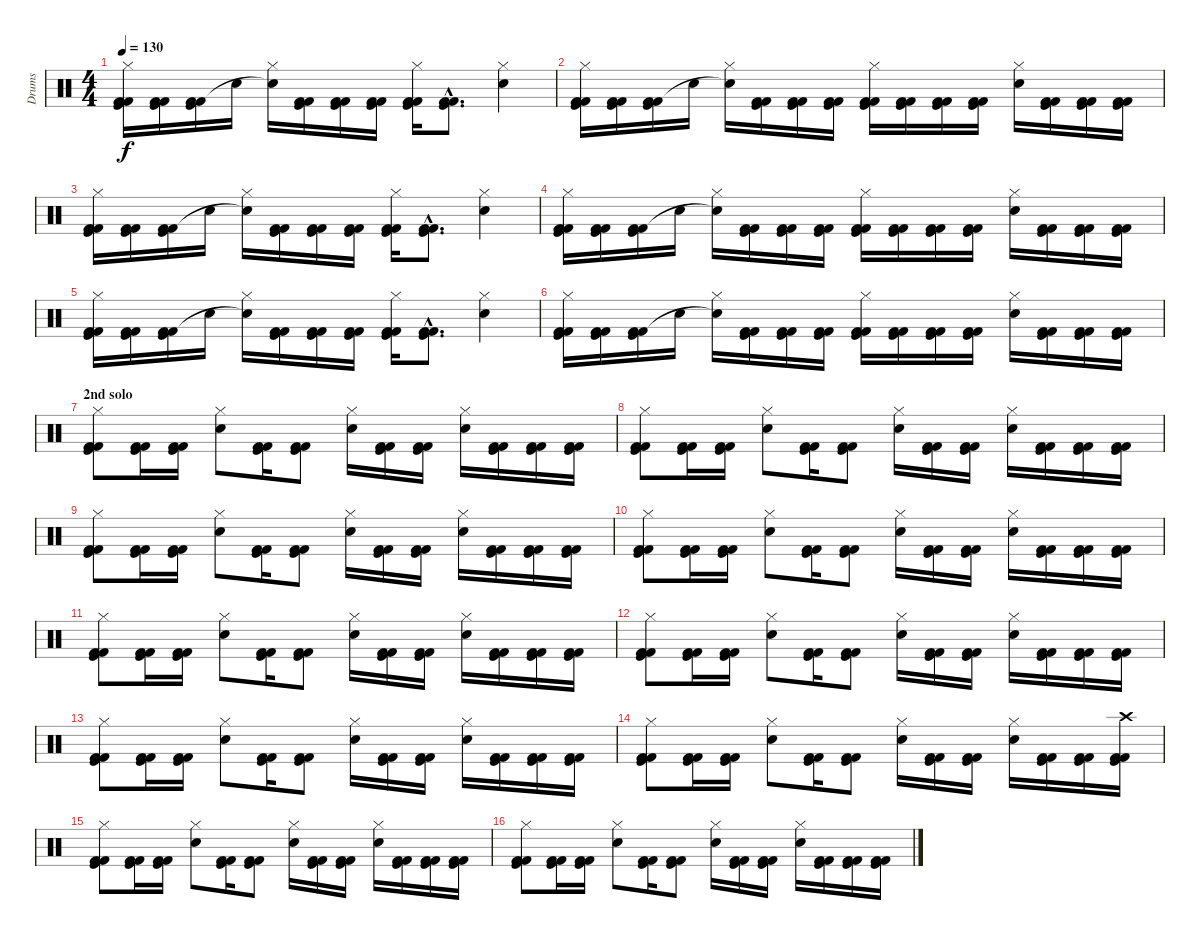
\track ("Drums" "Drums") {instrument percussion}
\staff {score}
\articulation defaults
\ts (4 4)
\tempo 130
\clef neutral
\ks c
("Hi-Hat (closed)" "Kick (hit)" "Kick (hit) 2" "Kick (hit) 2").16{dy f} ("Kick (hit)" "Kick (hit) 2" "Kick (hit) 2").16 ("Kick (hit)" "Kick (hit) 2" "Kick (hit) 2").16 "Electric Snare (hit)".16 ("Hi-Hat (closed)" "Snare (hit)"{t}).16 ("Kick (hit)" "Kick (hit) 2" "Kick (hit) 2").16 ("Kick (hit)" "Kick (hit) 2" "Kick (hit) 2").16 ("Kick (hit)" "Kick (hit) 2" "Kick (hit) 2").16 ("Hi-Hat (closed)" "Kick (hit)" "Kick (hit) 2" "Kick (hit) 2").16 ("Kick (hit)"{hac} "Kick (hit) 2"{hac} "Kick (hit) 2"{hac}).8{d} ("Hi-Hat (closed)" "Electric Snare (hit)").4 |
("Hi-Hat (closed)" "Kick (hit)" "Kick (hit) 2" "Kick (hit) 2").16 ("Kick (hit)" "Kick (hit) 2" "Kick (hit) 2").16 ("Kick (hit)" "Kick (hit) 2" "Kick (hit) 2").16 "Electric Snare (hit)".16 ("Hi-Hat (closed)" "Snare (hit)"{t}).16 ("Kick (hit)" "Kick (hit) 2" "Kick (hit) 2").16 ("Kick (hit)" "Kick (hit) 2" "Kick (hit) 2").16 ("Kick (hit)" "Kick (hit) 2" "Kick (hit) 2").16 ("Hi-Hat (closed)" "Kick (hit)" "Kick (hit) 2" "Kick (hit) 2").16 ("Kick (hit)" "Kick (hit) 2" "Kick (hit) 2").16 ("Kick (hit)" "Kick (hit) 2" "Kick (hit) 2").16 ("Kick (hit)" "Kick (hit) 2" "Kick (hit) 2").16 ("Hi-Hat (closed)" "Electric Snare (hit)").16 ("Kick (hit)" "Kick (hit) 2" "Kick (hit) 2").16 ("Kick (hit)" "Kick (hit) 2" "Kick (hit) 2").16 ("Kick (hit)" "Kick (hit) 2" "Kick (hit) 2").16 |
("Hi-Hat (closed)" "Kick (hit)" "Kick (hit) 2" "Kick (hit) 2").16 ("Kick (hit)" "Kick (hit) 2" "Kick (hit) 2").16 ("Kick (hit)" "Kick (hit) 2" "Kick (hit) 2").16 "Electric Snare (hit)".16 ("Hi-Hat (closed)" "Snare (hit)"{t}).16 ("Kick (hit)" "Kick (hit) 2" "Kick (hit) 2").16 ("Kick (hit)" "Kick (hit) 2" "Kick (hit) 2").16 ("Kick (hit)" "Kick (hit) 2" "Kick (hit) 2").16 ("Hi-Hat (closed)" "Kick (hit)" "Kick (hit) 2" "Kick (hit) 2").16 ("Kick (hit)"{hac} "Kick (hit) 2"{hac} "Kick (hit) 2"{hac}).8{d} ("Hi-Hat (closed)" "Electric Snare (hit)").4 |
("Hi-Hat (closed)" "Kick (hit)" "Kick (hit) 2" "Kick (hit) 2").16 ("Kick (hit)" "Kick (hit) 2" "Kick (hit) 2").16 ("Kick (hit)" "Kick (hit) 2" "Kick (hit) 2").16 "Electric Snare (hit)".16 ("Hi-Hat (closed)" "Snare (hit)"{t}).16 ("Kick (hit)" "Kick (hit) 2" "Kick (hit) 2").16 ("Kick (hit)" "Kick (hit) 2" "Kick (hit) 2").16 ("Kick (hit)" "Kick (hit) 2" "Kick (hit) 2").16 ("Hi-Hat (closed)" "Kick (hit)" "Kick (hit) 2" "Kick (hit) 2").16 ("Kick (hit)" "Kick (hit) 2" "Kick (hit) 2").16 ("Kick (hit)" "Kick (hit) 2" "Kick (hit) 2").16 ("Kick (hit)" "Kick (hit) 2" "Kick (hit) 2").16 ("Hi-Hat (closed)" "Electric Snare (hit)").16 ("Kick (hit)" "Kick (hit) 2" "Kick (hit) 2").16 ("Kick (hit)" "Kick (hit) 2" "Kick (hit) 2").16 ("Kick (hit)" "Kick (hit) 2" "Kick (hit) 2").16 |
("Hi-Hat (closed)" "Kick (hit)" "Kick (hit) 2" "Kick (hit) 2").16 ("Kick (hit)" "Kick (hit) 2" "Kick (hit) 2").16 ("Kick (hit)" "Kick (hit) 2" "Kick (hit) 2").16 "Electric Snare (hit)".16 ("Hi-Hat (closed)" "Snare (hit)"{t}).16 ("Kick (hit)" "Kick (hit) 2" "Kick (hit) 2").16 ("Kick (hit)" "Kick (hit) 2" "Kick (hit) 2").16 ("Kick (hit)" "Kick (hit) 2" "Kick (hit) 2").16 ("Hi-Hat (closed)" "Kick (hit)" "Kick (hit) 2" "Kick (hit) 2").16 ("Kick (hit)"{hac} "Kick (hit) 2"{hac} "Kick (hit) 2"{hac}).8{d} ("Hi-Hat (closed)" "Electric Snare (hit)").4 |
("Hi-Hat (closed)" "Kick (hit)" "Kick (hit) 2" "Kick (hit) 2").16 ("Kick (hit)" "Kick (hit) 2" "Kick (hit) 2").16 ("Kick (hit)" "Kick (hit) 2" "Kick (hit) 2").16 "Electric Snare (hit)".16 ("Hi-Hat (closed)" "Snare (hit)"{t}).16 ("Kick (hit)" "Kick (hit) 2" "Kick (hit) 2").16 ("Kick (hit)" "Kick (hit) 2" "Kick (hit) 2").16 ("Kick (hit)" "Kick (hit) 2" "Kick (hit) 2").16 ("Hi-Hat (closed)" "Kick (hit)" "Kick (hit) 2" "Kick (hit) 2").16 ("Kick (hit)" "Kick (hit) 2" "Kick (hit) 2").16 ("Kick (hit)" "Kick (hit) 2" "Kick (hit) 2").16 ("Kick (hit)" "Kick (hit) 2" "Kick (hit) 2").16 ("Hi-Hat (closed)" "Electric Snare (hit)").16 ("Kick (hit)" "Kick (hit) 2" "Kick (hit) 2").16 ("Kick (hit)" "Kick (hit) 2" "Kick (hit) 2").16 ("Kick (hit)" "Kick (hit) 2" "Kick (hit) 2").16 |
\section ("" "2nd solo")
("Hi-Hat (closed)" "Kick (hit)" "Kick (hit) 2" "Kick (hit) 2").8 ("Kick (hit)" "Kick (hit) 2" "Kick (hit) 2").16 ("Kick (hit)" "Kick (hit) 2" "Kick (hit) 2").16 ("Hi-Hat (closed)" "Electric Snare (hit)").8 ("Kick (hit)" "Kick (hit) 2" "Kick (hit) 2").16 ("Kick (hit)" "Kick (hit) 2" "Kick (hit) 2").8 ("Hi-Hat (closed)" "Electric Snare (hit)").16 ("Kick (hit)" "Kick (hit) 2" "Kick (hit) 2").16 ("Kick (hit)" "Kick (hit) 2" "Kick (hit) 2").16 ("Hi-Hat (closed)" "Electric Snare (hit)").16 ("Kick (hit)" "Kick (hit) 2" "Kick (hit) 2").16 ("Kick (hit)" "Kick (hit) 2" "Kick (hit) 2").16 ("Kick (hit)" "Kick (hit) 2" "Kick (hit) 2").16 |
("Hi-Hat (closed)" "Kick (hit)" "Kick (hit) 2" "Kick (hit) 2").8 ("Kick (hit)" "Kick (hit) 2" "Kick (hit) 2").16 ("Kick (hit)" "Kick (hit) 2" "Kick (hit) 2").16 ("Hi-Hat (closed)" "Electric Snare (hit)").8 ("Kick (hit)" "Kick (hit) 2" "Kick (hit) 2").16 ("Kick (hit)" "Kick (hit) 2" "Kick (hit) 2").8 ("Hi-Hat (closed)" "Electric Snare (hit)").16 ("Kick (hit)" "Kick (hit) 2" "Kick (hit) 2").16 ("Kick (hit)" "Kick (hit) 2" "Kick (hit) 2").16 ("Hi-Hat (closed)" "Electric Snare (hit)").16 ("Kick (hit)" "Kick (hit) 2" "Kick (hit) 2").16 ("Kick (hit)" "Kick (hit) 2" "Kick (hit) 2").16 ("Kick (hit)" "Kick (hit) 2" "Kick (hit) 2").16 |
("Hi-Hat (closed)" "Kick (hit)" "Kick (hit) 2" "Kick (hit) 2").8 ("Kick (hit)" "Kick (hit) 2" "Kick (hit) 2").16 ("Kick (hit)" "Kick (hit) 2" "Kick (hit) 2").16 ("Hi-Hat (closed)" "Electric Snare (hit)").8 ("Kick (hit)" "Kick (hit) 2" "Kick (hit) 2").16 ("Kick (hit)" "Kick (hit) 2" "Kick (hit) 2").8 ("Hi-Hat (closed)" "Electric Snare (hit)").16 ("Kick (hit)" "Kick (hit) 2" "Kick (hit) 2").16 ("Kick (hit)" "Kick (hit) 2" "Kick (hit) 2").16 ("Hi-Hat (closed)" "Electric Snare (hit)").16 ("Kick (hit)" "Kick (hit) 2" "Kick (hit) 2").16 ("Kick (hit)" "Kick (hit) 2" "Kick (hit) 2").16 ("Kick (hit)" "Kick (hit) 2" "Kick (hit) 2").16 |
("Hi-Hat (closed)" "Kick (hit)" "Kick (hit) 2" "Kick (hit) 2").8 ("Kick (hit)" "Kick (hit) 2" "Kick (hit) 2").16 ("Kick (hit)" "Kick (hit) 2" "Kick (hit) 2").16 ("Hi-Hat (closed)" "Electric Snare (hit)").8 ("Kick (hit)" "Kick (hit) 2" "Kick (hit) 2").16 ("Kick (hit)" "Kick (hit) 2" "Kick (hit) 2").8 ("Hi-Hat (closed)" "Electric Snare (hit)").16 ("Kick (hit)" "Kick (hit) 2" "Kick (hit) 2").16 ("Kick (hit)" "Kick (hit) 2" "Kick (hit) 2").16 ("Hi-Hat (closed)" "Electric Snare (hit)").16 ("Kick (hit)" "Kick (hit) 2" "Kick (hit) 2").16 ("Kick (hit)" "Kick (hit) 2" "Kick (hit) 2").16 ("Kick (hit)" "Kick (hit) 2" "Kick (hit) 2").16 |
("Hi-Hat (closed)" "Kick (hit)" "Kick (hit) 2" "Kick (hit) 2").8 ("Kick (hit)" "Kick (hit) 2" "Kick (hit) 2").16 ("Kick (hit)" "Kick (hit) 2" "Kick (hit) 2").16 ("Hi-Hat (closed)" "Electric Snare (hit)").8 ("Kick (hit)" "Kick (hit) 2" "Kick (hit) 2").16 ("Kick (hit)" "Kick (hit) 2" "Kick (hit) 2").8 ("Hi-Hat (closed)" "Electric Snare (hit)").16 ("Kick (hit)" "Kick (hit) 2" "Kick (hit) 2").16 ("Kick (hit)" "Kick (hit) 2" "Kick (hit) 2").16 ("Hi-Hat (closed)" "Electric Snare (hit)").16 ("Kick (hit)" "Kick (hit) 2" "Kick (hit) 2").16 ("Kick (hit)" "Kick (hit) 2" "Kick (hit) 2").16 ("Kick (hit)" "Kick (hit) 2" "Kick (hit) 2").16 |
("Hi-Hat (closed)" "Kick (hit)" "Kick (hit) 2" "Kick (hit) 2").8 ("Kick (hit)" "Kick (hit) 2" "Kick (hit) 2").16 ("Kick (hit)" "Kick (hit) 2" "Kick (hit) 2").16 ("Hi-Hat (closed)" "Electric Snare (hit)").8 ("Kick (hit)" "Kick (hit) 2" "Kick (hit) 2").16 ("Kick (hit)" "Kick (hit) 2" "Kick (hit) 2").8 ("Hi-Hat (closed)" "Electric Snare (hit)").16 ("Kick (hit)" "Kick (hit) 2" "Kick (hit) 2").16 ("Kick (hit)" "Kick (hit) 2" "Kick (hit) 2").16 ("Hi-Hat (closed)" "Electric Snare (hit)").16 ("Kick (hit)" "Kick (hit) 2" "Kick (hit) 2").16 ("Kick (hit)" "Kick (hit) 2" "Kick (hit) 2").16 ("Kick (hit)" "Kick (hit) 2" "Kick (hit) 2").16 |
("Hi-Hat (closed)" "Kick (hit)" "Kick (hit) 2" "Kick (hit) 2").8 ("Kick (hit)" "Kick (hit) 2" "Kick (hit) 2").16 ("Kick (hit)" "Kick (hit) 2" "Kick (hit) 2").16 ("Hi-Hat (closed)" "Electric Snare (hit)").8 ("Kick (hit)" "Kick (hit) 2" "Kick (hit) 2").16 ("Kick (hit)" "Kick (hit) 2" "Kick (hit) 2").8 ("Hi-Hat (closed)" "Electric Snare (hit)").16 ("Kick (hit)" "Kick (hit) 2" "Kick (hit) 2").16 ("Kick (hit)" "Kick (hit) 2" "Kick (hit) 2").16 ("Hi-Hat (closed)" "Electric Snare (hit)").16 ("Kick (hit)" "Kick (hit) 2" "Kick (hit) 2").16 ("Kick (hit)" "Kick (hit) 2" "Kick (hit) 2").16 ("Kick (hit)" "Kick (hit) 2" "Kick (hit) 2").16 |
("Hi-Hat (closed)" "Kick (hit)" "Kick (hit) 2" "Kick (hit) 2").8 ("Kick (hit)" "Kick (hit) 2" "Kick (hit) 2").16 ("Kick (hit)" "Kick (hit) 2" "Kick (hit) 2").16 ("Hi-Hat (closed)" "Electric Snare (hit)").8 ("Kick (hit)" "Kick (hit) 2" "Kick (hit) 2").16 ("Kick (hit)" "Kick (hit) 2" "Kick (hit) 2").8 ("Hi-Hat (closed)" "Electric Snare (hit)").16 ("Kick (hit)" "Kick (hit) 2" "Kick (hit) 2").16 ("Kick (hit)" "Kick (hit) 2" "Kick (hit) 2").16 ("Hi-Hat (closed)" "Electric Snare (hit)").16 ("Kick (hit)" "Kick (hit) 2" "Kick (hit) 2").16 ("Kick (hit)" "Kick (hit) 2" "Kick (hit) 2").16 ("Crash high (hit)" "Kick (hit)" "Kick (hit) 2" "Kick (hit) 2").16 |
("Hi-Hat (closed)" "Kick (hit)" "Kick (hit) 2" "Kick (hit) 2").8 ("Kick (hit)" "Kick (hit) 2" "Kick (hit) 2").16 ("Kick (hit)" "Kick (hit) 2" "Kick (hit) 2").16 ("Hi-Hat (closed)" "Electric Snare (hit)").8 ("Kick (hit)" "Kick (hit) 2" "Kick (hit) 2").16 ("Kick (hit)" "Kick (hit) 2" "Kick (hit) 2").8 ("Hi-Hat (closed)" "Electric Snare (hit)").16 ("Kick (hit)" "Kick (hit) 2" "Kick (hit) 2").16 ("Kick (hit)" "Kick (hit) 2" "Kick (hit) 2").16 ("Hi-Hat (closed)" "Electric Snare (hit)").16 ("Kick (hit)" "Kick (hit) 2" "Kick (hit) 2").16 ("Kick (hit)" "Kick (hit) 2" "Kick (hit) 2").16 ("Kick (hit)" "Kick (hit) 2" "Kick (hit) 2").16 |
("Hi-Hat (closed)" "Kick (hit)" "Kick (hit) 2" "Kick (hit) 2").8 ("Kick (hit)" "Kick (hit) 2" "Kick (hit) 2").16 ("Kick (hit)" "Kick (hit) 2" "Kick (hit) 2").16 ("Hi-Hat (closed)" "Electric Snare (hit)").8 ("Kick (hit)" "Kick (hit) 2" "Kick (hit) 2").16 ("Kick (hit)" "Kick (hit) 2" "Kick (hit) 2").8 ("Hi-Hat (closed)" "Electric Snare (hit)").16 ("Kick (hit)" "Kick (hit) 2" "Kick (hit) 2").16 ("Kick (hit)" "Kick (hit) 2" "Kick (hit) 2").16 ("Hi-Hat (closed)" "Electric Snare (hit)").16 ("Kick (hit)" "Kick (hit) 2" "Kick (hit) 2").16 ("Kick (hit)" "Kick (hit) 2" "Kick (hit) 2").16 ("Kick (hit)" "Kick (hit) 2" "Kick (hit) 2").16
